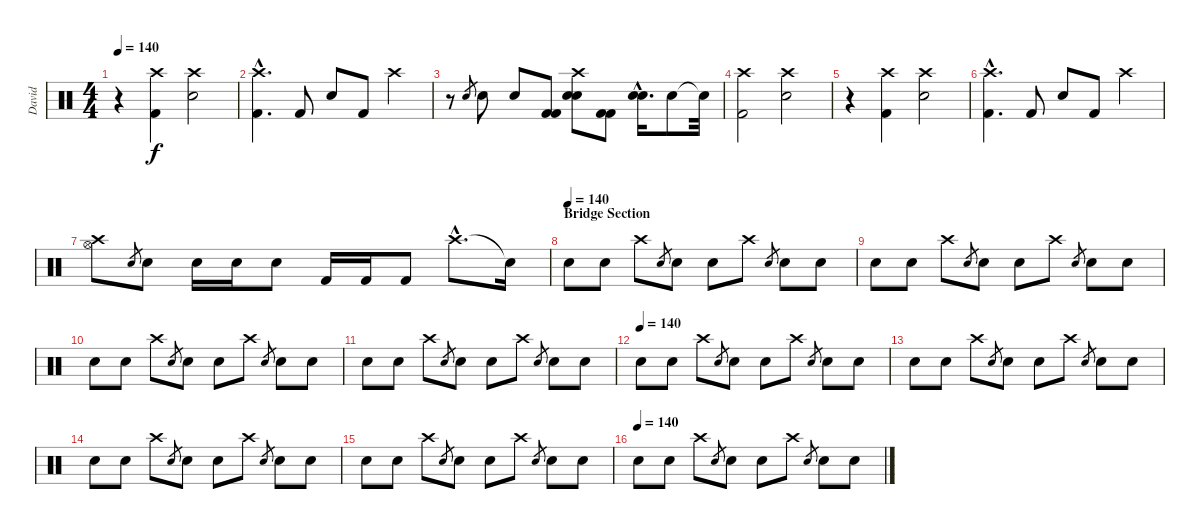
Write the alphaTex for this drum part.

\track ("David" "David") {instrument percussion}
\staff {score}
\articulation defaults
\ts (4 4)
\tempo 140
\clef neutral
\ks c
r.4{dy f} ("Crash high (hit)" "Kick (hit) 2").4 ("Crash high (hit)" "Electric Snare (hit)").2 |
("Crash high (hit)"{hac} "Kick (hit) 2"{hac}).4{d} "Kick (hit) 2".8 "Electric Snare (hit)".8 "Kick (hit) 2".8 "Crash high (hit)".4 |
r.8 "Electric Snare (hit)".8{gr} "Electric Snare (hit)".8 "Electric Snare (hit)".8 ("Kick (hit) 2" "Kick (hit) 2").8 ("Crash high (hit)" "Electric Snare (hit)" "Electric Snare (hit)").8 ("Kick (hit) 2" "Kick (hit) 2").8 ("Electric Snare (hit)"{hac} "Electric Snare (hit)"{hac}).16{d} "Electric Snare (hit)".8 "Snare (hit)"{t}.32 |
("Crash high (hit)" "Kick (hit) 2").2 ("Crash high (hit)" "Electric Snare (hit)").2 |
r.4 ("Crash high (hit)" "Kick (hit) 2").4 ("Crash high (hit)" "Electric Snare (hit)").2 |
("Crash high (hit)"{hac} "Kick (hit) 2"{hac}).4{d} "Kick (hit) 2".8 "Electric Snare (hit)".8 "Kick (hit) 2".8 "Crash high (hit)".4 |
("Crash high (hit)" "Hi-Hat (open)").8 "Electric Snare (hit)".8{gr} "Electric Snare (hit)".8 "Electric Snare (hit)".16 "Electric Snare (hit)".16 "Electric Snare (hit)".8 "Kick (hit) 2".16 "Kick (hit) 2".16 "Kick (hit) 2".8 "Crash high (hit)"{hac}.8{d} "Snare (hit)"{t}.16 |
\section ("" "Bridge Section")
\tempo (140)
"Electric Snare (hit)".8 "Electric Snare (hit)".8 "Crash high (hit)".8 "Electric Snare (hit)".8{gr} "Electric Snare (hit)".8 "Electric Snare (hit)".8 "Crash high (hit)".8 "Electric Snare (hit)".8{gr} "Electric Snare (hit)".8 "Electric Snare (hit)".8 |
"Electric Snare (hit)".8 "Electric Snare (hit)".8 "Crash high (hit)".8 "Electric Snare (hit)".8{gr} "Electric Snare (hit)".8 "Electric Snare (hit)".8 "Crash high (hit)".8 "Electric Snare (hit)".8{gr} "Electric Snare (hit)".8 "Electric Snare (hit)".8 |
"Electric Snare (hit)".8 "Electric Snare (hit)".8 "Crash high (hit)".8 "Electric Snare (hit)".8{gr} "Electric Snare (hit)".8 "Electric Snare (hit)".8 "Crash high (hit)".8 "Electric Snare (hit)".8{gr} "Electric Snare (hit)".8 "Electric Snare (hit)".8 |
"Electric Snare (hit)".8 "Electric Snare (hit)".8 "Crash high (hit)".8 "Electric Snare (hit)".8{gr} "Electric Snare (hit)".8 "Electric Snare (hit)".8 "Crash high (hit)".8 "Electric Snare (hit)".8{gr} "Electric Snare (hit)".8 "Electric Snare (hit)".8 |
\tempo (140)
"Electric Snare (hit)".8 "Electric Snare (hit)".8 "Crash high (hit)".8 "Electric Snare (hit)".8{gr} "Electric Snare (hit)".8 "Electric Snare (hit)".8 "Crash high (hit)".8 "Electric Snare (hit)".8{gr} "Electric Snare (hit)".8 "Electric Snare (hit)".8 |
"Electric Snare (hit)".8 "Electric Snare (hit)".8 "Crash high (hit)".8 "Electric Snare (hit)".8{gr} "Electric Snare (hit)".8 "Electric Snare (hit)".8 "Crash high (hit)".8 "Electric Snare (hit)".8{gr} "Electric Snare (hit)".8 "Electric Snare (hit)".8 |
"Electric Snare (hit)".8 "Electric Snare (hit)".8 "Crash high (hit)".8 "Electric Snare (hit)".8{gr} "Electric Snare (hit)".8 "Electric Snare (hit)".8 "Crash high (hit)".8 "Electric Snare (hit)".8{gr} "Electric Snare (hit)".8 "Electric Snare (hit)".8 |
"Electric Snare (hit)".8 "Electric Snare (hit)".8 "Crash high (hit)".8 "Electric Snare (hit)".8{gr} "Electric Snare (hit)".8 "Electric Snare (hit)".8 "Crash high (hit)".8 "Electric Snare (hit)".8{gr} "Electric Snare (hit)".8 "Electric Snare (hit)".8 |
\tempo (140)
"Electric Snare (hit)".8 "Electric Snare (hit)".8 "Crash high (hit)".8 "Electric Snare (hit)".8{gr} "Electric Snare (hit)".8 "Electric Snare (hit)".8 "Crash high (hit)".8 "Electric Snare (hit)".8{gr} "Electric Snare (hit)".8 "Electric Snare (hit)".8
